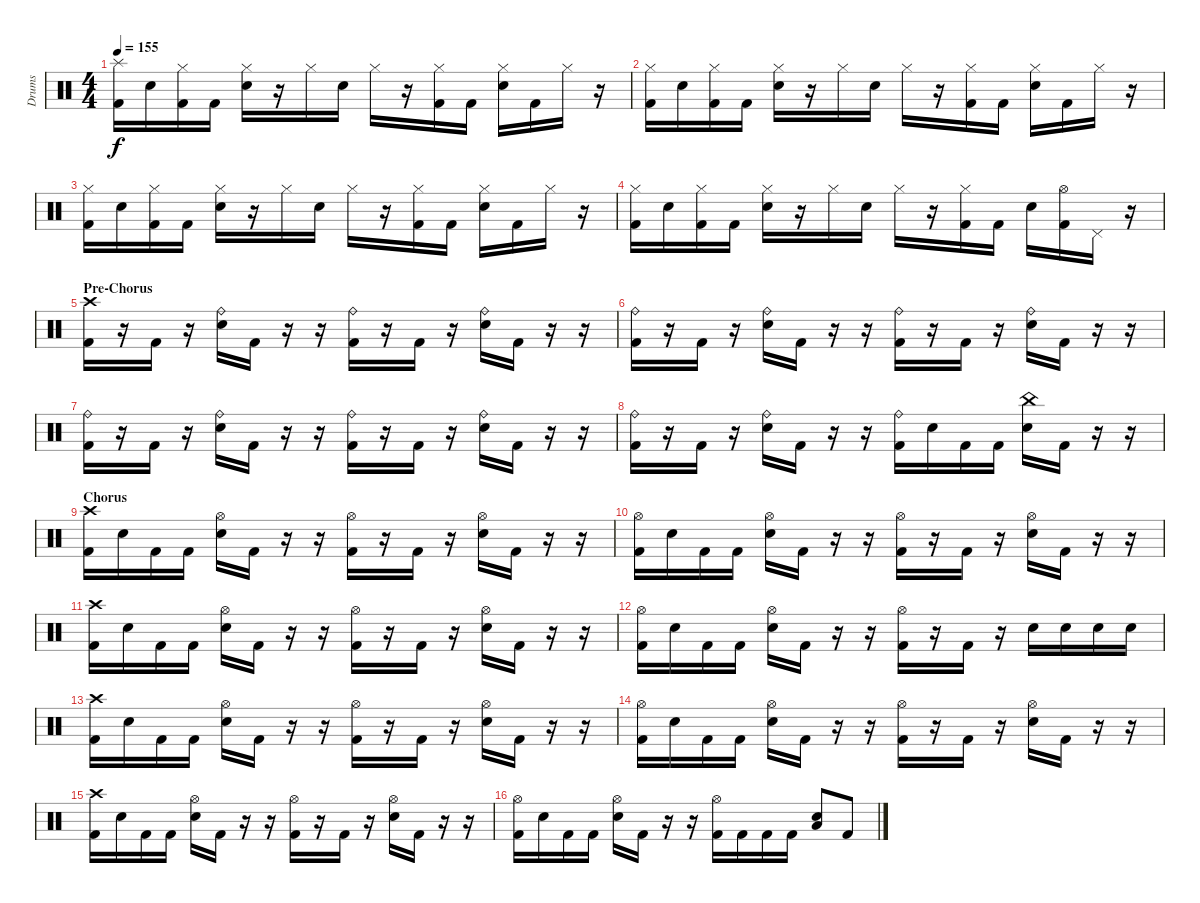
\track ("Drums" "Drums") {instrument percussion}
\staff {score}
\articulation defaults
\ts (4 4)
\tempo 155
\clef neutral
\ks c
("Splash (hit)" "Kick (hit) 2").16{dy f} "Electric Snare (hit)".16 ("Hi-Hat (closed)" "Kick (hit) 2").16 "Kick (hit) 2".16 ("Hi-Hat (closed)" "Electric Snare (hit)").16 r.16 "Hi-Hat (closed)".16 "Electric Snare (hit)".16 "Hi-Hat (closed)".16 r.16 ("Hi-Hat (closed)" "Kick (hit) 2").16 "Kick (hit) 2".16 ("Hi-Hat (closed)" "Electric Snare (hit)").16 "Kick (hit) 2".16 "Hi-Hat (closed)".16 r.16 |
("Hi-Hat (closed)" "Kick (hit) 2").16 "Electric Snare (hit)".16 ("Hi-Hat (closed)" "Kick (hit) 2").16 "Kick (hit) 2".16 ("Hi-Hat (closed)" "Electric Snare (hit)").16 r.16 "Hi-Hat (closed)".16 "Electric Snare (hit)".16 "Hi-Hat (closed)".16 r.16 ("Hi-Hat (closed)" "Kick (hit) 2").16 "Kick (hit) 2".16 ("Hi-Hat (closed)" "Electric Snare (hit)").16 "Kick (hit) 2".16 "Hi-Hat (closed)".16 r.16 |
("Hi-Hat (closed)" "Kick (hit) 2").16 "Electric Snare (hit)".16 ("Hi-Hat (closed)" "Kick (hit) 2").16 "Kick (hit) 2".16 ("Hi-Hat (closed)" "Electric Snare (hit)").16 r.16 "Hi-Hat (closed)".16 "Electric Snare (hit)".16 "Hi-Hat (closed)".16 r.16 ("Hi-Hat (closed)" "Kick (hit) 2").16 "Kick (hit) 2".16 ("Hi-Hat (closed)" "Electric Snare (hit)").16 "Kick (hit) 2".16 "Hi-Hat (closed)".16 r.16 |
("Hi-Hat (closed)" "Kick (hit) 2").16 "Electric Snare (hit)".16 ("Hi-Hat (closed)" "Kick (hit) 2").16 "Kick (hit) 2".16 ("Hi-Hat (closed)" "Electric Snare (hit)").16 r.16 "Hi-Hat (closed)".16 "Electric Snare (hit)".16 "Hi-Hat (closed)".16 r.16 ("Hi-Hat (closed)" "Kick (hit) 2").16 "Kick (hit) 2".16 "Electric Snare (hit)".16 ("Hi-Hat (open)" "Kick (hit) 2").16 "Pedal Hi-Hat (hit)".16 r.16 |
\section ("" "Pre-Chorus")
("Crash high (hit)" "Kick (hit) 2").16 r.16 "Kick (hit) 2".16 r.16 ("Ride (bell)" "Electric Snare (hit)").16 "Kick (hit) 2".16 r.16 r.16 ("Ride (bell)" "Kick (hit) 2").16 r.16 "Kick (hit) 2".16 r.16 ("Ride (bell)" "Electric Snare (hit)").16 "Kick (hit) 2".16 r.16 r.16 |
("Ride (bell)" "Kick (hit) 2").16 r.16 "Kick (hit) 2".16 r.16 ("Ride (bell)" "Electric Snare (hit)").16 "Kick (hit) 2".16 r.16 r.16 ("Ride (bell)" "Kick (hit) 2").16 r.16 "Kick (hit) 2".16 r.16 ("Ride (bell)" "Electric Snare (hit)").16 "Kick (hit) 2".16 r.16 r.16 |
("Ride (bell)" "Kick (hit) 2").16 r.16 "Kick (hit) 2".16 r.16 ("Ride (bell)" "Electric Snare (hit)").16 "Kick (hit) 2".16 r.16 r.16 ("Ride (bell)" "Kick (hit) 2").16 r.16 "Kick (hit) 2".16 r.16 ("Ride (bell)" "Electric Snare (hit)").16 "Kick (hit) 2".16 r.16 r.16 |
("Ride (bell)" "Kick (hit) 2").16 r.16 "Kick (hit) 2".16 r.16 ("Ride (bell)" "Electric Snare (hit)").16 "Kick (hit) 2".16 r.16 r.16 ("Ride (bell)" "Kick (hit) 2").16 "Electric Snare (hit)".16 "Kick (hit) 2".16 "Kick (hit) 2".16 ("China (hit)" "Electric Snare (hit)").16 "Kick (hit) 2".16 r.16 r.16 |
\section ("" "Chorus")
("Crash high (hit)" "Kick (hit) 2").16 "Electric Snare (hit)".16 "Kick (hit) 2".16 "Kick (hit) 2".16 ("Hi-Hat (open)" "Electric Snare (hit)").16 "Kick (hit) 2".16 r.16 r.16 ("Hi-Hat (open)" "Kick (hit) 2").16 r.16 "Kick (hit) 2".16 r.16 ("Hi-Hat (open)" "Electric Snare (hit)").16 "Kick (hit) 2".16 r.16 r.16 |
("Hi-Hat (open)" "Kick (hit) 2").16 "Electric Snare (hit)".16 "Kick (hit) 2".16 "Kick (hit) 2".16 ("Hi-Hat (open)" "Electric Snare (hit)").16 "Kick (hit) 2".16 r.16 r.16 ("Hi-Hat (open)" "Kick (hit) 2").16 r.16 "Kick (hit) 2".16 r.16 ("Hi-Hat (open)" "Electric Snare (hit)").16 "Kick (hit) 2".16 r.16 r.16 |
("Crash high (hit)" "Kick (hit) 2").16 "Electric Snare (hit)".16 "Kick (hit) 2".16 "Kick (hit) 2".16 ("Hi-Hat (open)" "Electric Snare (hit)").16 "Kick (hit) 2".16 r.16 r.16 ("Hi-Hat (open)" "Kick (hit) 2").16 r.16 "Kick (hit) 2".16 r.16 ("Hi-Hat (open)" "Electric Snare (hit)").16 "Kick (hit) 2".16 r.16 r.16 |
("Hi-Hat (open)" "Kick (hit) 2").16 "Electric Snare (hit)".16 "Kick (hit) 2".16 "Kick (hit) 2".16 ("Hi-Hat (open)" "Electric Snare (hit)").16 "Kick (hit) 2".16 r.16 r.16 ("Hi-Hat (open)" "Kick (hit) 2").16 r.16 "Kick (hit) 2".16 r.16 "Electric Snare (hit)".16 "Electric Snare (hit)".16 "Electric Snare (hit)".16 "Electric Snare (hit)".16 |
("Crash high (hit)" "Kick (hit) 2").16 "Electric Snare (hit)".16 "Kick (hit) 2".16 "Kick (hit) 2".16 ("Hi-Hat (open)" "Electric Snare (hit)").16 "Kick (hit) 2".16 r.16 r.16 ("Hi-Hat (open)" "Kick (hit) 2").16 r.16 "Kick (hit) 2".16 r.16 ("Hi-Hat (open)" "Electric Snare (hit)").16 "Kick (hit) 2".16 r.16 r.16 |
("Hi-Hat (open)" "Kick (hit) 2").16 "Electric Snare (hit)".16 "Kick (hit) 2".16 "Kick (hit) 2".16 ("Hi-Hat (open)" "Electric Snare (hit)").16 "Kick (hit) 2".16 r.16 r.16 ("Hi-Hat (open)" "Kick (hit) 2").16 r.16 "Kick (hit) 2".16 r.16 ("Hi-Hat (open)" "Electric Snare (hit)").16 "Kick (hit) 2".16 r.16 r.16 |
("Crash high (hit)" "Kick (hit) 2").16 "Electric Snare (hit)".16 "Kick (hit) 2".16 "Kick (hit) 2".16 ("Hi-Hat (open)" "Electric Snare (hit)").16 "Kick (hit) 2".16 r.16 r.16 ("Hi-Hat (open)" "Kick (hit) 2").16 r.16 "Kick (hit) 2".16 r.16 ("Hi-Hat (open)" "Electric Snare (hit)").16 "Kick (hit) 2".16 r.16 r.16 |
("Hi-Hat (open)" "Kick (hit) 2").16 "Electric Snare (hit)".16 "Kick (hit) 2".16 "Kick (hit) 2".16 ("Hi-Hat (open)" "Electric Snare (hit)").16 "Kick (hit) 2".16 r.16 r.16 ("Hi-Hat (open)" "Kick (hit) 2").16 "Kick (hit) 2".16 "Kick (hit) 2".16 "Kick (hit) 2".16 ("Electric Snare (hit)" "Low Tom (hit)").8 "Kick (hit) 2".8
